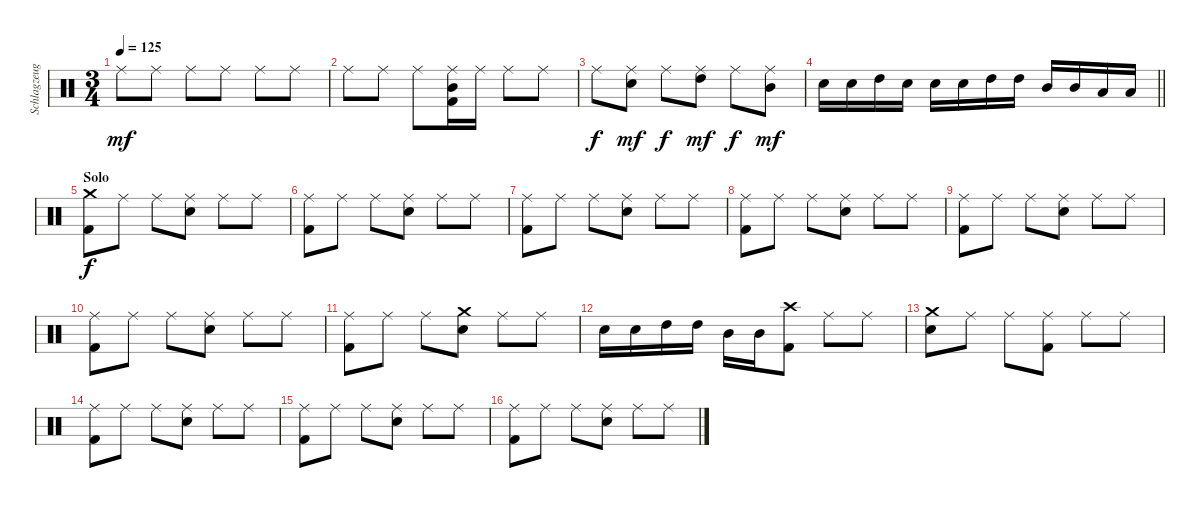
\track ("Schlagzeug" "Schlagzeug") {instrument percussion}
\staff {score}
\articulation defaults
\ts (3 4)
\tempo 125
\clef neutral
\ks c "Ride (middle)".8{dy mf} "Ride (middle)".8 "Ride (middle)".8 "Ride (middle)".8 "Ride (middle)".8 "Ride (middle)".8
|
"Ride (middle)".8 "Ride (middle)".8 "Ride (middle)".8 ("Ride (middle)" "Mid Tom (hit)" "Kick (hit) 2").16 "Ride (middle)".16 "Ride (middle)".8 "Ride (middle)".8 |
"Ride (middle)".8{dy f} ("Ride (middle)" "Snare (hit) 2").8{dy mf} "Ride (middle)".8{dy f} ("Ride (middle)" "High Tom (hit)").8{dy mf} "Ride (middle)".8{dy f} ("Ride (middle)" "Mid Tom (hit)").8{dy mf} |
\barLineRight lightlight "Snare (hit) 2".16 "Snare (hit) 2".16 "High Tom (hit)".16 "Snare (hit) 2".16 "Snare (hit) 2".16 "Snare (hit) 2".16 "High Tom (hit)".16 "High Tom (hit)".16 "Mid Tom (hit)".16 "Mid Tom (hit)".16 "Low Tom (hit)".16 "Low Tom (hit)".16
|
\section ("" "Solo")
("Crash medium (hit)" "Kick (hit) 2").8{dy f} "Ride (middle)".8 "Ride (middle)".8 ("Ride (middle)" "Snare (hit) 2").8 "Ride (middle)".8 "Ride (middle)".8 |
("Ride (middle)" "Kick (hit) 2").8 "Ride (middle)".8 "Ride (middle)".8 ("Ride (middle)" "Snare (hit) 2").8 "Ride (middle)".8 "Ride (middle)".8 |
("Ride (middle)" "Kick (hit) 2").8 "Ride (middle)".8 "Ride (middle)".8 ("Ride (middle)" "Snare (hit) 2").8 "Ride (middle)".8 "Ride (middle)".8 |
("Ride (middle)" "Kick (hit) 2").8 "Ride (middle)".8 "Ride (middle)".8 ("Ride (middle)" "Snare (hit) 2").8 "Ride (middle)".8 "Ride (middle)".8 |
("Ride (middle)" "Kick (hit) 2").8 "Ride (middle)".8 "Ride (middle)".8 ("Ride (middle)" "Snare (hit) 2").8 "Ride (middle)".8 "Ride (middle)".8 |
("Ride (middle)" "Kick (hit) 2").8 "Ride (middle)".8 "Ride (middle)".8 ("Ride (middle)" "Snare (hit) 2").8 "Ride (middle)".8 "Ride (middle)".8 |
("Ride (middle)" "Kick (hit) 2").8 "Ride (middle)".8 "Ride (middle)".8 ("Crash medium (hit)" "Snare (hit) 2").8 "Ride (middle)".8 "Ride (middle)".8 |
"Snare (hit) 2".16 "Snare (hit) 2".16 "High Tom (hit)".16 "High Tom (hit)".16 "Mid Tom (hit)".16 "Mid Tom (hit)".16 ("Crash high (hit)" "Kick (hit) 2").8 "Ride (middle)".8 "Ride (middle)".8 |
("Crash medium (hit)" "Snare (hit) 2").8 "Ride (middle)".8 "Ride (middle)".8 ("Ride (middle)" "Kick (hit) 2").8 "Ride (middle)".8 "Ride (middle)".8 |
("Ride (middle)" "Kick (hit) 2").8 "Ride (middle)".8 "Ride (middle)".8 ("Ride (middle)" "Snare (hit) 2").8 "Ride (middle)".8 "Ride (middle)".8 |
("Ride (middle)" "Kick (hit) 2").8 "Ride (middle)".8 "Ride (middle)".8 ("Ride (middle)" "Snare (hit) 2").8 "Ride (middle)".8 "Ride (middle)".8 |
("Ride (middle)" "Kick (hit) 2").8 "Ride (middle)".8 "Ride (middle)".8 ("Ride (middle)" "Snare (hit) 2").8 "Ride (middle)".8 "Ride (middle)".8
